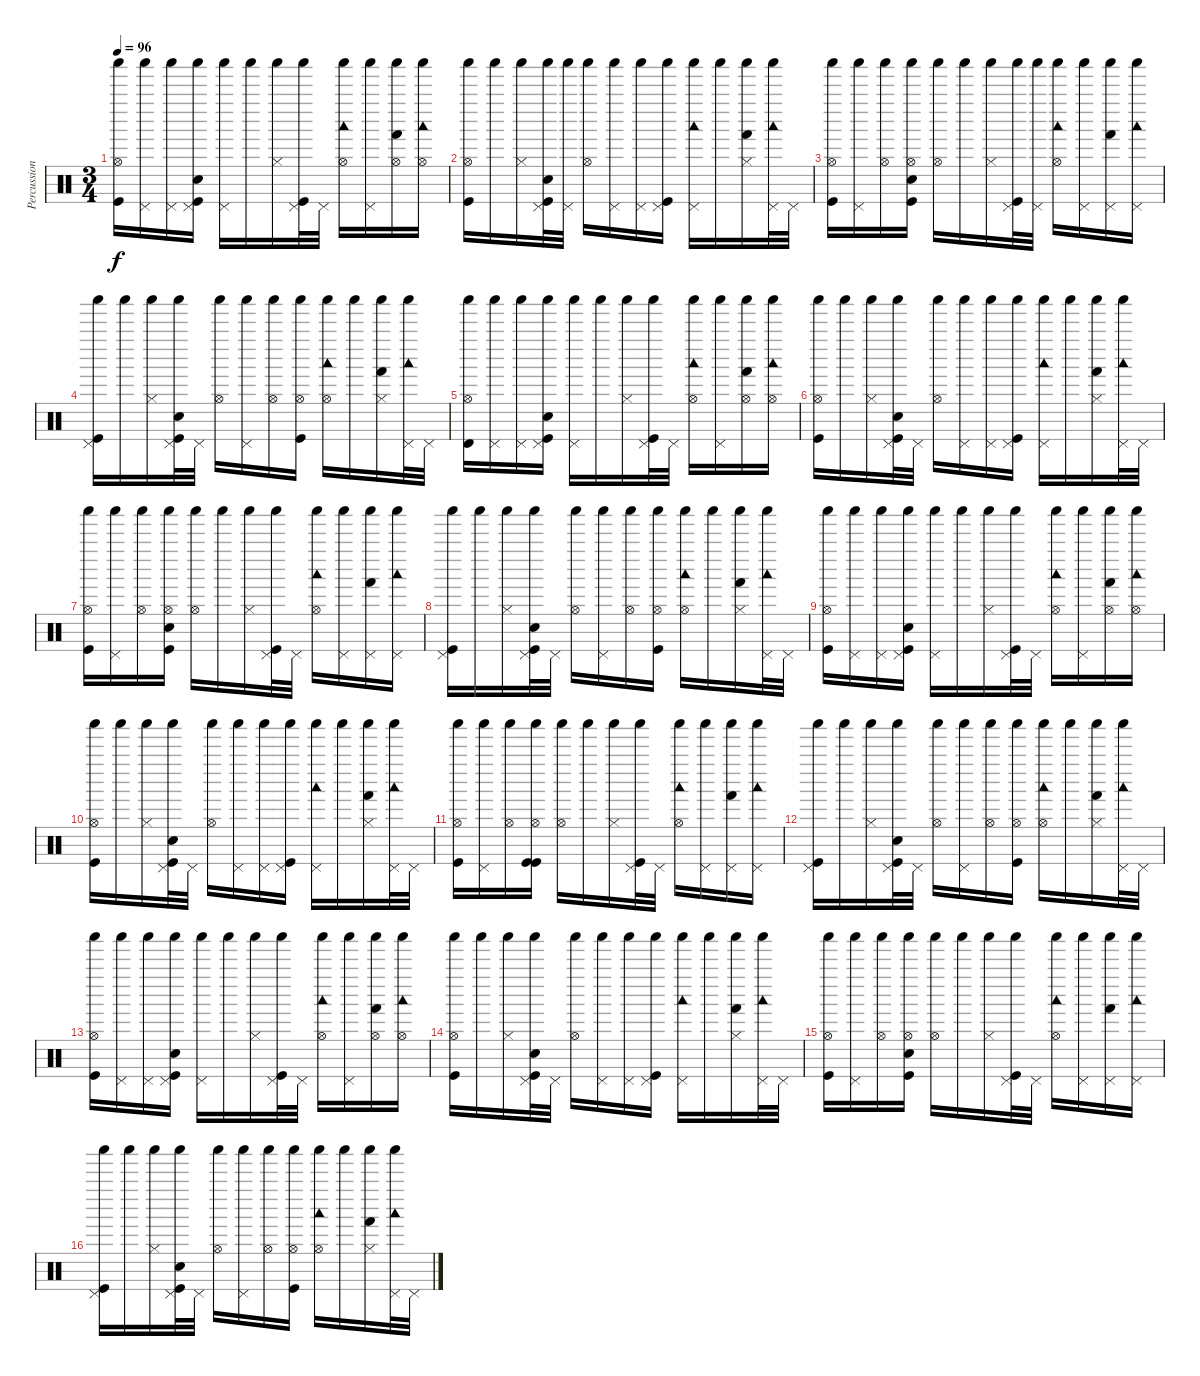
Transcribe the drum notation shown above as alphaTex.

\track ("Percussions" "Percussion") {instrument percussion}
\staff {score}
\articulation defaults
\ts (3 4)
\tempo 96
\clef neutral
\ks c
("Hi-Hat (open)" "Shaker (hit)" "Kick (hit)").16{dy f} ("Pedal Hi-Hat (hit)" "Shaker (hit)").16 ("Pedal Hi-Hat (hit)" "Shaker (hit)").16 ("Pedal Hi-Hat (hit)" "Shaker (hit)" "Metronome (bell)" "Kick (hit)").16 ("Pedal Hi-Hat (hit)" "Shaker (hit)").16 "Shaker (hit)".16 ("Hi-Hat (closed)" "Shaker (hit)").16 ("Pedal Hi-Hat (hit)" "Shaker (hit)" "Kick (hit)").32 "Pedal Hi-Hat (hit)".32 ("Hi-Hat (open)" "Shaker (hit)" "Woodblock low (hit)").16 ("Pedal Hi-Hat (hit)" "Shaker (hit)").16 ("Hi-Hat (open)" "Shaker (hit)" "Hand (hit)").16 ("Hi-Hat (open)" "Shaker (hit)" "Woodblock low (hit)").16 |
("Hi-Hat (open)" "Shaker (hit)" "Kick (hit)").16 "Shaker (hit)".16 ("Hi-Hat (closed)" "Shaker (hit)").16 ("Pedal Hi-Hat (hit)" "Shaker (hit)" "Metronome (bell)" "Kick (hit)").32 ("Pedal Hi-Hat (hit)" "Shaker (hit)").32 ("Hi-Hat (open)" "Shaker (hit)").16 ("Pedal Hi-Hat (hit)" "Shaker (hit)").16 ("Pedal Hi-Hat (hit)" "Shaker (hit)").16 ("Pedal Hi-Hat (hit)" "Shaker (hit)" "Kick (hit)").16 ("Pedal Hi-Hat (hit)" "Shaker (hit)" "Woodblock low (hit)").16 "Shaker (hit)".16 ("Hi-Hat (closed)" "Shaker (hit)" "Hand (hit)").16 ("Pedal Hi-Hat (hit)" "Shaker (hit)" "Woodblock low (hit)").32 "Pedal Hi-Hat (hit)".32 |
("Hi-Hat (open)" "Shaker (hit)" "Kick (hit)").16 ("Pedal Hi-Hat (hit)" "Shaker (hit)").16 ("Hi-Hat (open)" "Shaker (hit)").16 ("Hi-Hat (open)" "Shaker (hit)" "Metronome (bell)" "Kick (hit)").16 ("Hi-Hat (open)" "Shaker (hit)").16 "Shaker (hit)".16 ("Hi-Hat (closed)" "Shaker (hit)").16 ("Pedal Hi-Hat (hit)" "Shaker (hit)" "Kick (hit)").32 ("Pedal Hi-Hat (hit)" "Shaker (hit)").32 ("Hi-Hat (open)" "Shaker (hit)" "Woodblock low (hit)").16 ("Pedal Hi-Hat (hit)" "Shaker (hit)").16 ("Pedal Hi-Hat (hit)" "Shaker (hit)" "Hand (hit)").16 ("Pedal Hi-Hat (hit)" "Shaker (hit)" "Woodblock low (hit)").16 |
("Pedal Hi-Hat (hit)" "Shaker (hit)" "Kick (hit)").16 "Shaker (hit)".16 ("Hi-Hat (closed)" "Shaker (hit)").16 ("Pedal Hi-Hat (hit)" "Shaker (hit)" "Metronome (bell)" "Kick (hit)").32 "Pedal Hi-Hat (hit)".32 ("Hi-Hat (open)" "Shaker (hit)").16 ("Pedal Hi-Hat (hit)" "Shaker (hit)").16 ("Hi-Hat (open)" "Shaker (hit)").16 ("Hi-Hat (open)" "Shaker (hit)" "Kick (hit)").16 ("Hi-Hat (open)" "Shaker (hit)" "Woodblock low (hit)").16 "Shaker (hit)".16 ("Hi-Hat (closed)" "Shaker (hit)" "Hand (hit)").16 ("Pedal Hi-Hat (hit)" "Shaker (hit)" "Woodblock low (hit)").32 "Pedal Hi-Hat (hit)".32 |
("Hi-Hat (open)" "Shaker (hit)" "Timbale high (hit)").16 ("Pedal Hi-Hat (hit)" "Shaker (hit)").16 ("Pedal Hi-Hat (hit)" "Shaker (hit)").16 ("Pedal Hi-Hat (hit)" "Shaker (hit)" "Metronome (bell)" "Kick (hit)").16 ("Pedal Hi-Hat (hit)" "Shaker (hit)").16 "Shaker (hit)".16 ("Hi-Hat (closed)" "Shaker (hit)").16 ("Pedal Hi-Hat (hit)" "Shaker (hit)" "Kick (hit)").32 "Pedal Hi-Hat (hit)".32 ("Hi-Hat (open)" "Shaker (hit)" "Woodblock low (hit)").16 ("Pedal Hi-Hat (hit)" "Shaker (hit)").16 ("Hi-Hat (open)" "Shaker (hit)" "Hand (hit)").16 ("Hi-Hat (open)" "Shaker (hit)" "Woodblock low (hit)").16 |
("Hi-Hat (open)" "Shaker (hit)" "Kick (hit)").16 "Shaker (hit)".16 ("Hi-Hat (closed)" "Shaker (hit)").16 ("Pedal Hi-Hat (hit)" "Shaker (hit)" "Metronome (bell)" "Kick (hit)").32 "Pedal Hi-Hat (hit)".32 ("Hi-Hat (open)" "Shaker (hit)").16 ("Pedal Hi-Hat (hit)" "Shaker (hit)").16 ("Pedal Hi-Hat (hit)" "Shaker (hit)").16 ("Pedal Hi-Hat (hit)" "Shaker (hit)" "Kick (hit)").16 ("Pedal Hi-Hat (hit)" "Shaker (hit)" "Woodblock low (hit)").16 "Shaker (hit)".16 ("Hi-Hat (closed)" "Shaker (hit)" "Hand (hit)").16 ("Pedal Hi-Hat (hit)" "Shaker (hit)" "Woodblock low (hit)").32 "Pedal Hi-Hat (hit)".32 |
("Hi-Hat (open)" "Shaker (hit)" "Kick (hit)").16 ("Pedal Hi-Hat (hit)" "Shaker (hit)").16 ("Hi-Hat (open)" "Shaker (hit)").16 ("Hi-Hat (open)" "Shaker (hit)" "Metronome (bell)" "Kick (hit)").16 ("Hi-Hat (open)" "Shaker (hit)").16 "Shaker (hit)".16 ("Hi-Hat (closed)" "Shaker (hit)").16 ("Pedal Hi-Hat (hit)" "Shaker (hit)" "Kick (hit)").32 "Pedal Hi-Hat (hit)".32 ("Hi-Hat (open)" "Shaker (hit)" "Woodblock low (hit)").16 ("Pedal Hi-Hat (hit)" "Shaker (hit)").16 ("Pedal Hi-Hat (hit)" "Shaker (hit)" "Hand (hit)").16 ("Pedal Hi-Hat (hit)" "Shaker (hit)" "Woodblock low (hit)").16 |
("Pedal Hi-Hat (hit)" "Shaker (hit)" "Kick (hit)").16 "Shaker (hit)".16 ("Hi-Hat (closed)" "Shaker (hit)").16 ("Pedal Hi-Hat (hit)" "Shaker (hit)" "Metronome (bell)" "Kick (hit)").32 "Pedal Hi-Hat (hit)".32 ("Hi-Hat (open)" "Shaker (hit)").16 ("Pedal Hi-Hat (hit)" "Shaker (hit)").16 ("Hi-Hat (open)" "Shaker (hit)").16 ("Hi-Hat (open)" "Shaker (hit)" "Kick (hit)").16 ("Hi-Hat (open)" "Shaker (hit)" "Woodblock low (hit)").16 "Shaker (hit)".16 ("Hi-Hat (closed)" "Shaker (hit)" "Hand (hit)").16 ("Pedal Hi-Hat (hit)" "Shaker (hit)" "Woodblock low (hit)").32 "Pedal Hi-Hat (hit)".32 |
("Hi-Hat (open)" "Shaker (hit)" "Kick (hit)").16 ("Pedal Hi-Hat (hit)" "Shaker (hit)").16 ("Pedal Hi-Hat (hit)" "Shaker (hit)").16 ("Pedal Hi-Hat (hit)" "Shaker (hit)" "Metronome (bell)" "Kick (hit)").16 ("Pedal Hi-Hat (hit)" "Shaker (hit)").16 "Shaker (hit)".16 ("Hi-Hat (closed)" "Shaker (hit)").16 ("Pedal Hi-Hat (hit)" "Shaker (hit)" "Kick (hit)").32 "Pedal Hi-Hat (hit)".32 ("Hi-Hat (open)" "Shaker (hit)" "Woodblock low (hit)").16 ("Pedal Hi-Hat (hit)" "Shaker (hit)").16 ("Hi-Hat (open)" "Shaker (hit)" "Hand (hit)").16 ("Hi-Hat (open)" "Shaker (hit)" "Woodblock low (hit)").16 |
("Hi-Hat (open)" "Shaker (hit)" "Kick (hit)").16 "Shaker (hit)".16 ("Hi-Hat (closed)" "Shaker (hit)").16 ("Pedal Hi-Hat (hit)" "Shaker (hit)" "Metronome (bell)" "Kick (hit)").32 "Pedal Hi-Hat (hit)".32 ("Hi-Hat (open)" "Shaker (hit)").16 ("Pedal Hi-Hat (hit)" "Shaker (hit)").16 ("Pedal Hi-Hat (hit)" "Shaker (hit)").16 ("Pedal Hi-Hat (hit)" "Shaker (hit)" "Kick (hit)").16 ("Pedal Hi-Hat (hit)" "Shaker (hit)" "Woodblock low (hit)").16 "Shaker (hit)".16 ("Hi-Hat (closed)" "Shaker (hit)" "Hand (hit)").16 ("Pedal Hi-Hat (hit)" "Shaker (hit)" "Woodblock low (hit)").32 "Pedal Hi-Hat (hit)".32 |
("Hi-Hat (open)" "Shaker (hit)" "Kick (hit)").16 ("Pedal Hi-Hat (hit)" "Shaker (hit)").16 ("Hi-Hat (open)" "Shaker (hit)").16 ("Hi-Hat (open)" "Shaker (hit)" "Kick (hit)" "Kick (hit)").16 ("Hi-Hat (open)" "Shaker (hit)").16 "Shaker (hit)".16 ("Hi-Hat (closed)" "Shaker (hit)").16 ("Pedal Hi-Hat (hit)" "Shaker (hit)" "Kick (hit)").32 "Pedal Hi-Hat (hit)".32 ("Hi-Hat (open)" "Shaker (hit)" "Woodblock low (hit)").16 ("Pedal Hi-Hat (hit)" "Shaker (hit)").16 ("Pedal Hi-Hat (hit)" "Shaker (hit)" "Hand (hit)").16 ("Pedal Hi-Hat (hit)" "Shaker (hit)" "Woodblock low (hit)").16 |
("Pedal Hi-Hat (hit)" "Shaker (hit)" "Kick (hit)").16 "Shaker (hit)".16 ("Hi-Hat (closed)" "Shaker (hit)").16 ("Pedal Hi-Hat (hit)" "Shaker (hit)" "Metronome (bell)" "Kick (hit)").32 "Pedal Hi-Hat (hit)".32 ("Hi-Hat (open)" "Shaker (hit)").16 ("Pedal Hi-Hat (hit)" "Shaker (hit)").16 ("Hi-Hat (open)" "Shaker (hit)").16 ("Hi-Hat (open)" "Shaker (hit)" "Kick (hit)").16 ("Hi-Hat (open)" "Shaker (hit)" "Woodblock low (hit)").16 "Shaker (hit)".16 ("Hi-Hat (closed)" "Shaker (hit)" "Hand (hit)").16 ("Pedal Hi-Hat (hit)" "Shaker (hit)" "Woodblock low (hit)").32 "Pedal Hi-Hat (hit)".32 |
("Hi-Hat (open)" "Shaker (hit)" "Kick (hit)").16 ("Pedal Hi-Hat (hit)" "Shaker (hit)").16 ("Pedal Hi-Hat (hit)" "Shaker (hit)").16 ("Pedal Hi-Hat (hit)" "Shaker (hit)" "Metronome (bell)" "Kick (hit)").16 ("Pedal Hi-Hat (hit)" "Shaker (hit)").16 "Shaker (hit)".16 ("Hi-Hat (closed)" "Shaker (hit)").16 ("Pedal Hi-Hat (hit)" "Shaker (hit)" "Kick (hit)").32 "Pedal Hi-Hat (hit)".32 ("Hi-Hat (open)" "Shaker (hit)" "Woodblock low (hit)").16 ("Pedal Hi-Hat (hit)" "Shaker (hit)").16 ("Hi-Hat (open)" "Shaker (hit)" "Hand (hit)").16 ("Hi-Hat (open)" "Shaker (hit)" "Woodblock low (hit)").16 |
("Hi-Hat (open)" "Shaker (hit)" "Kick (hit)").16 "Shaker (hit)".16 ("Hi-Hat (closed)" "Shaker (hit)").16 ("Pedal Hi-Hat (hit)" "Shaker (hit)" "Metronome (bell)" "Kick (hit)").32 "Pedal Hi-Hat (hit)".32 ("Hi-Hat (open)" "Shaker (hit)").16 ("Pedal Hi-Hat (hit)" "Shaker (hit)").16 ("Pedal Hi-Hat (hit)" "Shaker (hit)").16 ("Pedal Hi-Hat (hit)" "Shaker (hit)" "Kick (hit)").16 ("Pedal Hi-Hat (hit)" "Shaker (hit)" "Woodblock low (hit)").16 "Shaker (hit)".16 ("Hi-Hat (closed)" "Shaker (hit)" "Hand (hit)").16 ("Pedal Hi-Hat (hit)" "Shaker (hit)" "Woodblock low (hit)").32 "Pedal Hi-Hat (hit)".32 |
("Hi-Hat (open)" "Shaker (hit)" "Kick (hit)").16 ("Pedal Hi-Hat (hit)" "Shaker (hit)").16 ("Hi-Hat (open)" "Shaker (hit)").16 ("Hi-Hat (open)" "Shaker (hit)" "Metronome (bell)" "Kick (hit)").16 ("Hi-Hat (open)" "Shaker (hit)").16 "Shaker (hit)".16 ("Hi-Hat (closed)" "Shaker (hit)").16 ("Pedal Hi-Hat (hit)" "Shaker (hit)" "Kick (hit)").32 "Pedal Hi-Hat (hit)".32 ("Hi-Hat (open)" "Shaker (hit)" "Woodblock low (hit)").16 ("Pedal Hi-Hat (hit)" "Shaker (hit)").16 ("Pedal Hi-Hat (hit)" "Shaker (hit)" "Hand (hit)").16 ("Pedal Hi-Hat (hit)" "Shaker (hit)" "Woodblock low (hit)").16 |
("Pedal Hi-Hat (hit)" "Shaker (hit)" "Kick (hit)").16 "Shaker (hit)".16 ("Hi-Hat (closed)" "Shaker (hit)").16 ("Pedal Hi-Hat (hit)" "Shaker (hit)" "Metronome (bell)" "Kick (hit)").32 "Pedal Hi-Hat (hit)".32 ("Hi-Hat (open)" "Shaker (hit)").16 ("Pedal Hi-Hat (hit)" "Shaker (hit)").16 ("Hi-Hat (open)" "Shaker (hit)").16 ("Hi-Hat (open)" "Shaker (hit)" "Kick (hit)").16 ("Hi-Hat (open)" "Shaker (hit)" "Woodblock low (hit)").16 "Shaker (hit)".16 ("Hi-Hat (closed)" "Shaker (hit)" "Hand (hit)").16 ("Pedal Hi-Hat (hit)" "Shaker (hit)" "Woodblock low (hit)").32 "Pedal Hi-Hat (hit)".32
